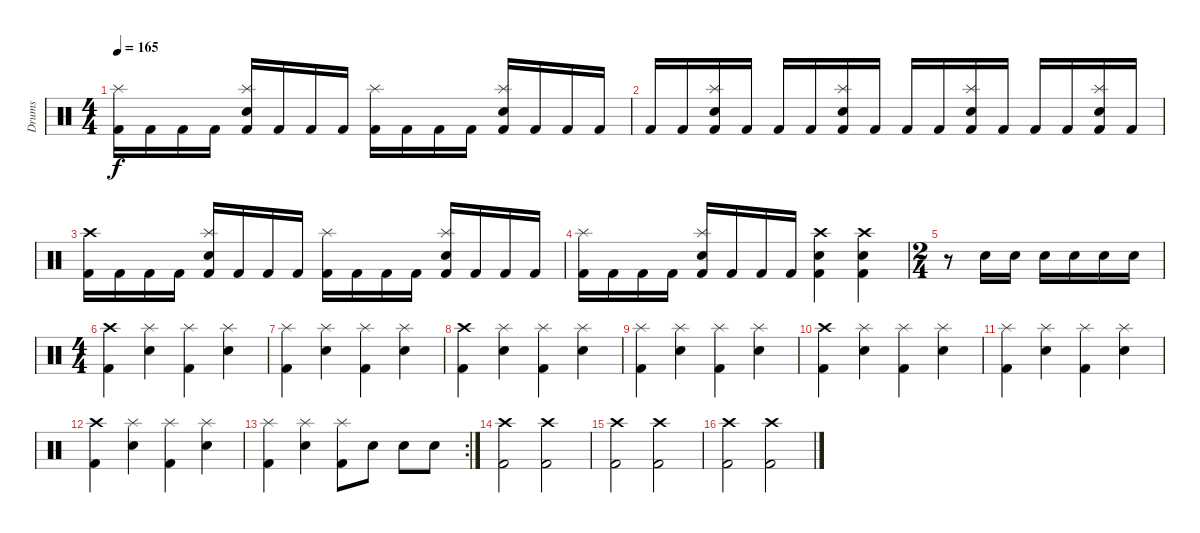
\track ("Drums" "Drums") {instrument percussion}
\staff {score}
\articulation defaults
\ts (4 4)
\tempo 165
\clef neutral
\ks c
("Kick (hit) 2" "Splash (hit)").16{dy f} "Kick (hit) 2".16 "Kick (hit) 2".16 "Kick (hit) 2".16 ("Kick (hit) 2" "Snare (hit) 2" "Splash (hit)").16 "Kick (hit) 2".16 "Kick (hit) 2".16 "Kick (hit) 2".16 ("Kick (hit) 2" "Splash (hit)").16 "Kick (hit) 2".16 "Kick (hit) 2".16 "Kick (hit) 2".16 ("Kick (hit) 2" "Snare (hit) 2" "Splash (hit)").16 "Kick (hit) 2".16 "Kick (hit) 2".16 "Kick (hit) 2".16 |
"Kick (hit) 2".16 "Kick (hit) 2".16 ("Kick (hit) 2" "Snare (hit) 2" "Splash (hit)").16 "Kick (hit) 2".16 "Kick (hit) 2".16 "Kick (hit) 2".16 ("Kick (hit) 2" "Snare (hit) 2" "Splash (hit)").16 "Kick (hit) 2".16 "Kick (hit) 2".16 "Kick (hit) 2".16 ("Kick (hit) 2" "Snare (hit) 2" "Splash (hit)").16 "Kick (hit) 2".16 "Kick (hit) 2".16 "Kick (hit) 2".16 ("Kick (hit) 2" "Snare (hit) 2" "Splash (hit)").16 "Kick (hit) 2".16 |
("Kick (hit) 2" "Crash high (hit)").16 "Kick (hit) 2".16 "Kick (hit) 2".16 "Kick (hit) 2".16 ("Kick (hit) 2" "Snare (hit) 2" "Splash (hit)").16 "Kick (hit) 2".16 "Kick (hit) 2".16 "Kick (hit) 2".16 ("Kick (hit) 2" "Splash (hit)").16 "Kick (hit) 2".16 "Kick (hit) 2".16 "Kick (hit) 2".16 ("Kick (hit) 2" "Snare (hit) 2" "Splash (hit)").16 "Kick (hit) 2".16 "Kick (hit) 2".16 "Kick (hit) 2".16 |
("Kick (hit) 2" "Splash (hit)").16 "Kick (hit) 2".16 "Kick (hit) 2".16 "Kick (hit) 2".16 ("Kick (hit) 2" "Snare (hit) 2" "Splash (hit)").16 "Kick (hit) 2".16 "Kick (hit) 2".16 "Kick (hit) 2".16 ("Kick (hit) 2" "Snare (hit) 2" "Crash high (hit)").4 ("Snare (hit) 2" "Kick (hit) 2" "Crash high (hit)").4 |
\ts (2 4)
r.8 "Snare (hit) 2".16 "Snare (hit) 2".16 "Snare (hit) 2".16 "Snare (hit) 2".16 "Snare (hit) 2".16 "Snare (hit) 2".16 |
\ts (4 4)
("Crash high (hit)" "Kick (hit) 2").4 ("Splash (hit)" "Snare (hit) 2").4 ("Splash (hit)" "Kick (hit) 2").4 ("Splash (hit)" "Snare (hit) 2").4 |
("Splash (hit)" "Kick (hit) 2").4 ("Splash (hit)" "Snare (hit) 2").4 ("Splash (hit)" "Kick (hit) 2").4 ("Splash (hit)" "Snare (hit) 2").4 |
("Crash high (hit)" "Kick (hit) 2").4 ("Splash (hit)" "Snare (hit) 2").4 ("Splash (hit)" "Kick (hit) 2").4 ("Splash (hit)" "Snare (hit) 2").4 |
("Splash (hit)" "Kick (hit) 2").4 ("Splash (hit)" "Snare (hit) 2").4 ("Splash (hit)" "Kick (hit) 2").4 ("Splash (hit)" "Snare (hit) 2").4 |
("Crash high (hit)" "Kick (hit) 2").4 ("Splash (hit)" "Snare (hit) 2").4 ("Splash (hit)" "Kick (hit) 2").4 ("Splash (hit)" "Snare (hit) 2").4 |
("Splash (hit)" "Kick (hit) 2").4 ("Splash (hit)" "Snare (hit) 2").4 ("Splash (hit)" "Kick (hit) 2").4 ("Splash (hit)" "Snare (hit) 2").4 |
("Crash high (hit)" "Kick (hit) 2").4 ("Splash (hit)" "Snare (hit) 2").4 ("Splash (hit)" "Kick (hit) 2").4 ("Splash (hit)" "Snare (hit) 2").4 |
\rc 2
("Splash (hit)" "Kick (hit) 2").4 ("Splash (hit)" "Snare (hit) 2").4 ("Splash (hit)" "Kick (hit) 2").8 "Snare (hit) 2".8 "Snare (hit) 2".8 "Snare (hit) 2".8 |
("Kick (hit) 2" "Crash high (hit)").2 ("Kick (hit) 2" "Crash high (hit)").2 |
("Kick (hit) 2" "Crash high (hit)").2 ("Kick (hit) 2" "Crash high (hit)").2 |
("Kick (hit) 2" "Crash high (hit)").2 ("Kick (hit) 2" "Crash high (hit)").2
